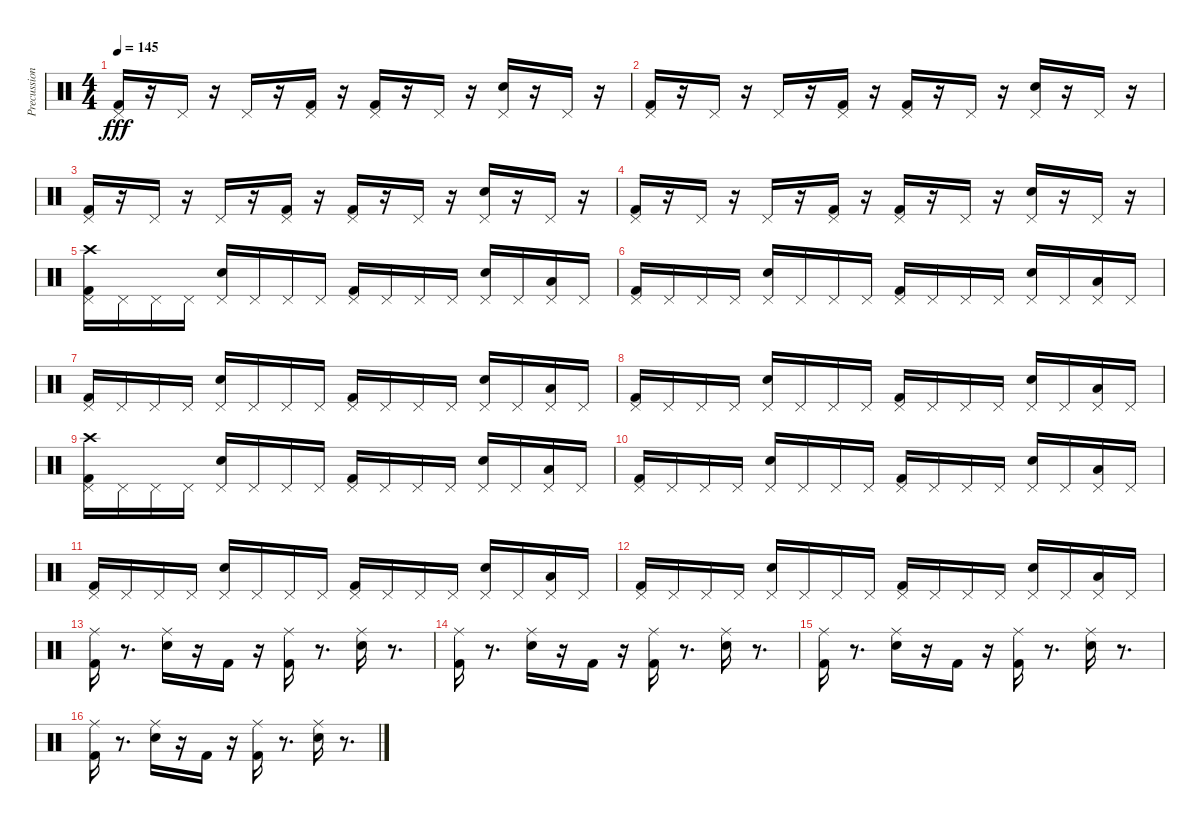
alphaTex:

\track ("Precussion" "Precussion") {instrument percussion}
\staff {score}
\articulation defaults
\ts (4 4)
\tempo 145
\clef neutral
\ks c
("Kick (hit) 2" "Pedal Hi-Hat (hit)").16{dy fff} r.16 "Pedal Hi-Hat (hit)".16 r.16 "Pedal Hi-Hat (hit)".16 r.16 ("Kick (hit) 2" "Pedal Hi-Hat (hit)").16 r.16 ("Kick (hit) 2" "Pedal Hi-Hat (hit)").16 r.16 "Pedal Hi-Hat (hit)".16 r.16 ("Pedal Hi-Hat (hit)" "Snare (hit) 2").16 r.16 "Pedal Hi-Hat (hit)".16 r.16 |
("Kick (hit) 2" "Pedal Hi-Hat (hit)").16 r.16 "Pedal Hi-Hat (hit)".16 r.16 "Pedal Hi-Hat (hit)".16 r.16 ("Kick (hit) 2" "Pedal Hi-Hat (hit)").16 r.16 ("Kick (hit) 2" "Pedal Hi-Hat (hit)").16 r.16 "Pedal Hi-Hat (hit)".16 r.16 ("Pedal Hi-Hat (hit)" "Snare (hit) 2").16 r.16 "Pedal Hi-Hat (hit)".16 r.16 |
("Kick (hit) 2" "Pedal Hi-Hat (hit)").16 r.16 "Pedal Hi-Hat (hit)".16 r.16 "Pedal Hi-Hat (hit)".16 r.16 ("Kick (hit) 2" "Pedal Hi-Hat (hit)").16 r.16 ("Kick (hit) 2" "Pedal Hi-Hat (hit)").16 r.16 "Pedal Hi-Hat (hit)".16 r.16 ("Pedal Hi-Hat (hit)" "Snare (hit) 2").16 r.16 "Pedal Hi-Hat (hit)".16 r.16 |
("Kick (hit) 2" "Pedal Hi-Hat (hit)").16 r.16 "Pedal Hi-Hat (hit)".16 r.16 "Pedal Hi-Hat (hit)".16 r.16 ("Kick (hit) 2" "Pedal Hi-Hat (hit)").16 r.16 ("Kick (hit) 2" "Pedal Hi-Hat (hit)").16 r.16 "Pedal Hi-Hat (hit)".16 r.16 ("Pedal Hi-Hat (hit)" "Snare (hit) 2").16 r.16 "Pedal Hi-Hat (hit)".16 r.16 |
("Kick (hit) 2" "Crash high (hit)" "Pedal Hi-Hat (hit)").16 "Pedal Hi-Hat (hit)".16 "Pedal Hi-Hat (hit)".16 "Pedal Hi-Hat (hit)".16 ("Pedal Hi-Hat (hit)" "Snare (hit) 2").16 "Pedal Hi-Hat (hit)".16 "Pedal Hi-Hat (hit)".16 "Pedal Hi-Hat (hit)".16 ("Pedal Hi-Hat (hit)" "Kick (hit) 2").16 "Pedal Hi-Hat (hit)".16 "Pedal Hi-Hat (hit)".16 "Pedal Hi-Hat (hit)".16 ("Pedal Hi-Hat (hit)" "Snare (hit) 2").16 "Pedal Hi-Hat (hit)".16 ("Pedal Hi-Hat (hit)" "Low Floor Tom (hit)").16 "Pedal Hi-Hat (hit)".16 |
("Kick (hit) 2" "Pedal Hi-Hat (hit)").16 "Pedal Hi-Hat (hit)".16 "Pedal Hi-Hat (hit)".16 "Pedal Hi-Hat (hit)".16 ("Pedal Hi-Hat (hit)" "Snare (hit) 2").16 "Pedal Hi-Hat (hit)".16 "Pedal Hi-Hat (hit)".16 "Pedal Hi-Hat (hit)".16 ("Pedal Hi-Hat (hit)" "Kick (hit) 2").16 "Pedal Hi-Hat (hit)".16 "Pedal Hi-Hat (hit)".16 "Pedal Hi-Hat (hit)".16 ("Pedal Hi-Hat (hit)" "Snare (hit) 2").16 "Pedal Hi-Hat (hit)".16 ("Pedal Hi-Hat (hit)" "Low Floor Tom (hit)").16 "Pedal Hi-Hat (hit)".16 |
("Kick (hit) 2" "Pedal Hi-Hat (hit)").16 "Pedal Hi-Hat (hit)".16 "Pedal Hi-Hat (hit)".16 "Pedal Hi-Hat (hit)".16 ("Pedal Hi-Hat (hit)" "Snare (hit) 2").16 "Pedal Hi-Hat (hit)".16 "Pedal Hi-Hat (hit)".16 "Pedal Hi-Hat (hit)".16 ("Pedal Hi-Hat (hit)" "Kick (hit) 2").16 "Pedal Hi-Hat (hit)".16 "Pedal Hi-Hat (hit)".16 "Pedal Hi-Hat (hit)".16 ("Pedal Hi-Hat (hit)" "Snare (hit) 2").16 "Pedal Hi-Hat (hit)".16 ("Pedal Hi-Hat (hit)" "Low Floor Tom (hit)").16 "Pedal Hi-Hat (hit)".16 |
("Kick (hit) 2" "Pedal Hi-Hat (hit)").16 "Pedal Hi-Hat (hit)".16 "Pedal Hi-Hat (hit)".16 "Pedal Hi-Hat (hit)".16 ("Pedal Hi-Hat (hit)" "Snare (hit) 2").16 "Pedal Hi-Hat (hit)".16 "Pedal Hi-Hat (hit)".16 "Pedal Hi-Hat (hit)".16 ("Pedal Hi-Hat (hit)" "Kick (hit) 2").16 "Pedal Hi-Hat (hit)".16 "Pedal Hi-Hat (hit)".16 "Pedal Hi-Hat (hit)".16 ("Pedal Hi-Hat (hit)" "Snare (hit) 2").16 "Pedal Hi-Hat (hit)".16 ("Pedal Hi-Hat (hit)" "Low Floor Tom (hit)").16 "Pedal Hi-Hat (hit)".16 |
("Kick (hit) 2" "Crash high (hit)" "Pedal Hi-Hat (hit)").16 "Pedal Hi-Hat (hit)".16 "Pedal Hi-Hat (hit)".16 "Pedal Hi-Hat (hit)".16 ("Pedal Hi-Hat (hit)" "Snare (hit) 2").16 "Pedal Hi-Hat (hit)".16 "Pedal Hi-Hat (hit)".16 "Pedal Hi-Hat (hit)".16 ("Pedal Hi-Hat (hit)" "Kick (hit) 2").16 "Pedal Hi-Hat (hit)".16 "Pedal Hi-Hat (hit)".16 "Pedal Hi-Hat (hit)".16 ("Pedal Hi-Hat (hit)" "Snare (hit) 2").16 "Pedal Hi-Hat (hit)".16 ("Pedal Hi-Hat (hit)" "Low Floor Tom (hit)").16 "Pedal Hi-Hat (hit)".16 |
("Kick (hit) 2" "Pedal Hi-Hat (hit)").16 "Pedal Hi-Hat (hit)".16 "Pedal Hi-Hat (hit)".16 "Pedal Hi-Hat (hit)".16 ("Pedal Hi-Hat (hit)" "Snare (hit) 2").16 "Pedal Hi-Hat (hit)".16 "Pedal Hi-Hat (hit)".16 "Pedal Hi-Hat (hit)".16 ("Pedal Hi-Hat (hit)" "Kick (hit) 2").16 "Pedal Hi-Hat (hit)".16 "Pedal Hi-Hat (hit)".16 "Pedal Hi-Hat (hit)".16 ("Pedal Hi-Hat (hit)" "Snare (hit) 2").16 "Pedal Hi-Hat (hit)".16 ("Pedal Hi-Hat (hit)" "Low Floor Tom (hit)").16 "Pedal Hi-Hat (hit)".16 |
("Kick (hit) 2" "Pedal Hi-Hat (hit)").16 "Pedal Hi-Hat (hit)".16 "Pedal Hi-Hat (hit)".16 "Pedal Hi-Hat (hit)".16 ("Pedal Hi-Hat (hit)" "Snare (hit) 2").16 "Pedal Hi-Hat (hit)".16 "Pedal Hi-Hat (hit)".16 "Pedal Hi-Hat (hit)".16 ("Pedal Hi-Hat (hit)" "Kick (hit) 2").16 "Pedal Hi-Hat (hit)".16 "Pedal Hi-Hat (hit)".16 "Pedal Hi-Hat (hit)".16 ("Pedal Hi-Hat (hit)" "Snare (hit) 2").16 "Pedal Hi-Hat (hit)".16 ("Pedal Hi-Hat (hit)" "Low Floor Tom (hit)").16 "Pedal Hi-Hat (hit)".16 |
("Kick (hit) 2" "Pedal Hi-Hat (hit)").16 "Pedal Hi-Hat (hit)".16 "Pedal Hi-Hat (hit)".16 "Pedal Hi-Hat (hit)".16 ("Pedal Hi-Hat (hit)" "Snare (hit) 2").16 "Pedal Hi-Hat (hit)".16 "Pedal Hi-Hat (hit)".16 "Pedal Hi-Hat (hit)".16 ("Pedal Hi-Hat (hit)" "Kick (hit) 2").16 "Pedal Hi-Hat (hit)".16 "Pedal Hi-Hat (hit)".16 "Pedal Hi-Hat (hit)".16 ("Pedal Hi-Hat (hit)" "Snare (hit) 2").16 "Pedal Hi-Hat (hit)".16 ("Pedal Hi-Hat (hit)" "Low Floor Tom (hit)").16 "Pedal Hi-Hat (hit)".16 |
("Kick (hit) 2" "Ride (middle)").16 r.8{d} ("Ride (middle)" "Snare (hit) 2").16 r.16 "Kick (hit) 2".16 r.16 ("Ride (middle)" "Kick (hit) 2").16 r.8{d} ("Ride (middle)" "Snare (hit) 2").16 r.8{d} |
("Kick (hit) 2" "Ride (middle)").16 r.8{d} ("Ride (middle)" "Snare (hit) 2").16 r.16 "Kick (hit) 2".16 r.16 ("Ride (middle)" "Kick (hit) 2").16 r.8{d} ("Ride (middle)" "Snare (hit) 2").16 r.8{d} |
("Kick (hit) 2" "Ride (middle)").16 r.8{d} ("Ride (middle)" "Snare (hit) 2").16 r.16 "Kick (hit) 2".16 r.16 ("Ride (middle)" "Kick (hit) 2").16 r.8{d} ("Ride (middle)" "Snare (hit) 2").16 r.8{d} |
("Kick (hit) 2" "Ride (middle)").16 r.8{d} ("Ride (middle)" "Snare (hit) 2").16 r.16 "Kick (hit) 2".16 r.16 ("Ride (middle)" "Kick (hit) 2").16 r.8{d} ("Ride (middle)" "Snare (hit) 2").16 r.8{d}
